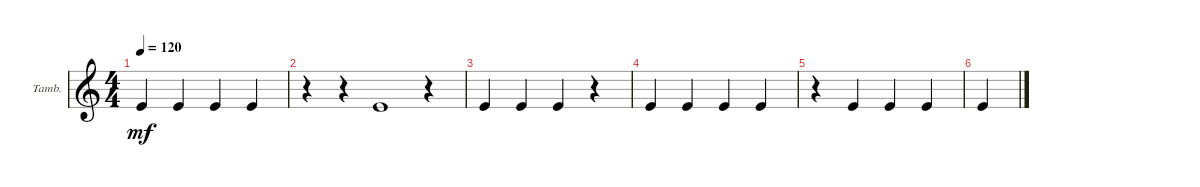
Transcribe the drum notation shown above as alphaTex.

\defaultSystemsLayout 4
\bracketExtendMode groupsimilarinstruments
\firstSystemTrackNameOrientation horizontal
\otherSystemsTrackNameOrientation horizontal
\track ("Tambourine" "Tamb.") {instrument percussion}
\staff {score}
\articulation defaults
\ts (4 4)
\tempo 120
\clef g2
\scale
0.333333
\ks aminor "Kick (hit)".4{dy mf} "Kick (hit)".4 "Kick (hit)".4 "Kick (hit)".4
|
\scale
0.333333 r.4 r.4 "Kick (hit)".1 r.4 |
\scale
0.333333 "Kick (hit)".4 "Kick (hit)".4 "Kick (hit)".4 r.4 |
\scale
0.333333 "Kick (hit)".4 "Kick (hit)".4 "Kick (hit)".4 "Kick (hit)".4 |
\scale
0.333333 r.4 "Kick (hit)".4 "Kick (hit)".4 "Kick (hit)".4 |
"Kick (hit)".4
